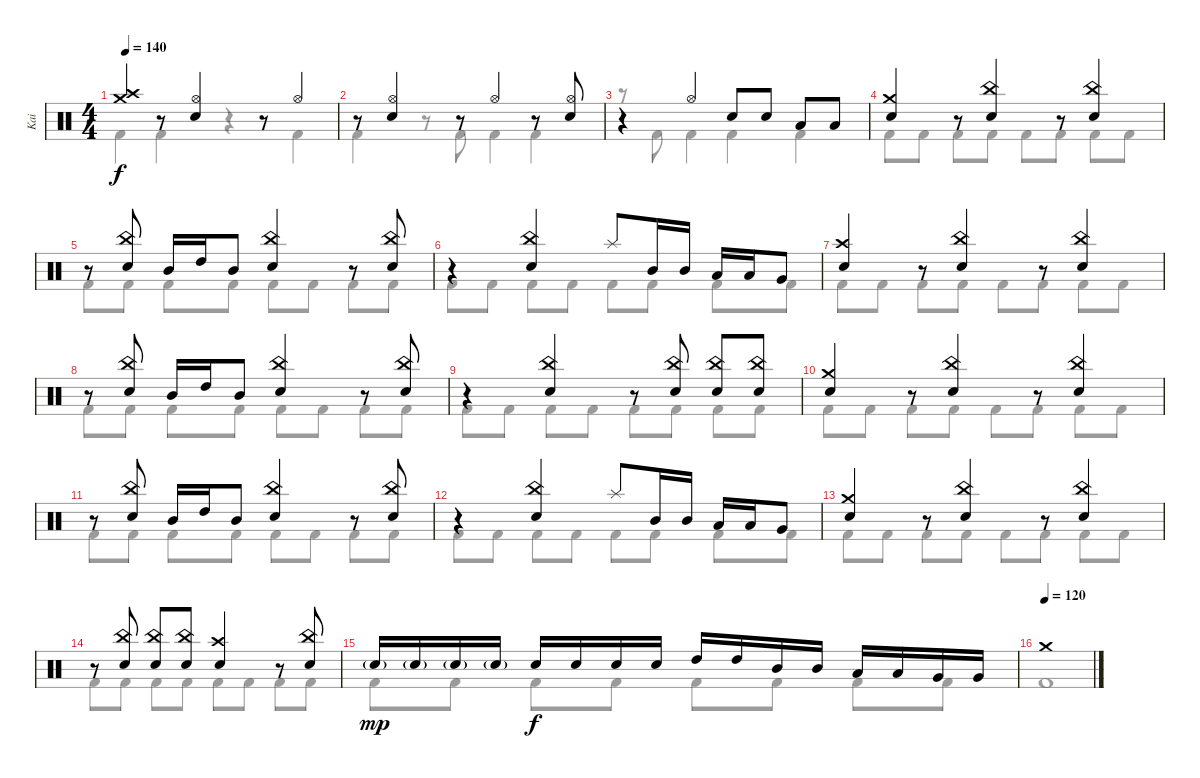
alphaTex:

\track ("Kai" "Kai") {instrument percussion}
\staff {score}
\articulation defaults
\voice
\ts (4 4)
\tempo 140
\clef neutral
\ks c
("Crash medium (hit)" "Crash high (hit)").4{dy f} r.8 ("Hi-Hat (open)" "Snare (hit) 2").4 r.8 "Hi-Hat (open)".4 |
r.8 ("Hi-Hat (open)" "Snare (hit) 2").4 r.8 "Hi-Hat (open)".4 r.8 ("Hi-Hat (open)" "Snare (hit) 2").8 |
r.4 "Hi-Hat (open)".4 "Snare (hit) 2".8 "Snare (hit) 2".8 "Low Tom (hit)".8 "Low Tom (hit)".8 |
("Crash medium (hit)" "Snare (hit) 2").4 r.8 ("China (hit)" "Snare (hit) 2").4 r.8 ("China (hit)" "Snare (hit) 2").4 |
r.8 ("China (hit)" "Snare (hit) 2").8 "Mid Tom (hit)".16 "High Tom (hit)".16 "Mid Tom (hit)".8 ("China (hit)" "Snare (hit) 2").4 r.8 ("China (hit)" "Snare (hit) 2").8 |
r.4 ("China (hit)" "Snare (hit) 2").4 "Splash (hit)".8 "Mid Tom (hit)".16 "Mid Tom (hit)".16 "Low Tom (hit)".16 "Low Tom (hit)".16 "Very Low Tom (hit)".8 |
("Crash high (hit)" "Snare (hit) 2").4 r.8 ("China (hit)" "Snare (hit) 2").4 r.8 ("China (hit)" "Snare (hit) 2").4 |
r.8 ("China (hit)" "Snare (hit) 2").8 "Mid Tom (hit)".16 "High Tom (hit)".16 "Mid Tom (hit)".8 ("China (hit)" "Snare (hit) 2").4 r.8 ("China (hit)" "Snare (hit) 2").8 |
r.4 ("China (hit)" "Snare (hit) 2").4 r.8 ("China (hit)" "Snare (hit) 2").8 ("China (hit)" "Snare (hit) 2").8 ("China (hit)" "Snare (hit) 2").8 |
("Crash medium (hit)" "Snare (hit) 2").4 r.8 ("China (hit)" "Snare (hit) 2").4 r.8 ("China (hit)" "Snare (hit) 2").4 |
r.8 ("China (hit)" "Snare (hit) 2").8 "Mid Tom (hit)".16 "High Tom (hit)".16 "Mid Tom (hit)".8 ("China (hit)" "Snare (hit) 2").4 r.8 ("China (hit)" "Snare (hit) 2").8 |
r.4 ("China (hit)" "Snare (hit) 2").4 "Splash (hit)".8 "Mid Tom (hit)".16 "Mid Tom (hit)".16 "Low Tom (hit)".16 "Low Tom (hit)".16 "Very Low Tom (hit)".8 |
("Crash medium (hit)" "Snare (hit) 2").4 r.8 ("China (hit)" "Snare (hit) 2").4 r.8 ("China (hit)" "Snare (hit) 2").4 |
r.8 ("China (hit)" "Snare (hit) 2").8 ("China (hit)" "Snare (hit) 2").8 ("China (hit)" "Snare (hit) 2").8 ("Crash high (hit)" "Snare (hit) 2").4 r.8 ("China (hit)" "Snare (hit) 2").8 |
"Snare (hit) 2"{g}.16{dy mp} "Snare (hit) 2"{g}.16 "Snare (hit) 2"{g}.16 "Snare (hit) 2"{g}.16 "Snare (hit) 2".16{dy f} "Snare (hit) 2".16 "Snare (hit) 2".16 "Snare (hit) 2".16 "High Tom (hit)".16 "High Tom (hit)".16 "Mid Tom (hit)".16 "Mid Tom (hit)".16 "Low Tom (hit)".16 "Low Tom (hit)".16 "Very Low Tom (hit)".16 "Very Low Tom (hit)".16 |
\tempo (120)
"Crash medium (hit)".1
\voice
\clef neutral
\ottava regular
\simile none
\ks c "Kick (hit) 2".4{dy f} "Kick (hit) 2".4
r.4 "Kick (hit) 2".4 |
"Kick (hit) 2".4 r.8 "Kick (hit) 2".8 "Kick (hit) 2".4 "Kick (hit) 2".4 |
r.8 "Kick (hit) 2".8 "Kick (hit) 2".4 "Kick (hit) 2".4 "Kick (hit) 2".4 |
"Kick (hit) 2".8 "Kick (hit) 2".8 "Kick (hit) 2".8 "Kick (hit) 2".8 "Kick (hit) 2".8 "Kick (hit) 2".8 "Kick (hit) 2".8 "Kick (hit) 2".8 |
"Kick (hit) 2".8 "Kick (hit) 2".8 "Kick (hit) 2".8 "Kick (hit) 2".8 "Kick (hit) 2".8 "Kick (hit) 2".8 "Kick (hit) 2".8 "Kick (hit) 2".8 |
"Kick (hit) 2".8 "Kick (hit) 2".8 "Kick (hit) 2".8 "Kick (hit) 2".8 "Kick (hit) 2".8 "Kick (hit) 2".8 "Kick (hit) 2".8 "Kick (hit) 2".8 |
"Kick (hit) 2".8 "Kick (hit) 2".8 "Kick (hit) 2".8 "Kick (hit) 2".8 "Kick (hit) 2".8 "Kick (hit) 2".8 "Kick (hit) 2".8 "Kick (hit) 2".8 |
"Kick (hit) 2".8 "Kick (hit) 2".8 "Kick (hit) 2".8 "Kick (hit) 2".8 "Kick (hit) 2".8 "Kick (hit) 2".8 "Kick (hit) 2".8 "Kick (hit) 2".8 |
"Kick (hit) 2".8 "Kick (hit) 2".8 "Kick (hit) 2".8 "Kick (hit) 2".8 "Kick (hit) 2".8 "Kick (hit) 2".8 "Kick (hit) 2".8 "Kick (hit) 2".8 |
"Kick (hit) 2".8 "Kick (hit) 2".8 "Kick (hit) 2".8 "Kick (hit) 2".8 "Kick (hit) 2".8 "Kick (hit) 2".8 "Kick (hit) 2".8 "Kick (hit) 2".8 |
"Kick (hit) 2".8 "Kick (hit) 2".8 "Kick (hit) 2".8 "Kick (hit) 2".8 "Kick (hit) 2".8 "Kick (hit) 2".8 "Kick (hit) 2".8 "Kick (hit) 2".8 |
"Kick (hit) 2".8 "Kick (hit) 2".8 "Kick (hit) 2".8 "Kick (hit) 2".8 "Kick (hit) 2".8 "Kick (hit) 2".8 "Kick (hit) 2".8 "Kick (hit) 2".8 |
"Kick (hit) 2".8 "Kick (hit) 2".8 "Kick (hit) 2".8 "Kick (hit) 2".8 "Kick (hit) 2".8 "Kick (hit) 2".8 "Kick (hit) 2".8 "Kick (hit) 2".8 |
"Kick (hit) 2".8 "Kick (hit) 2".8 "Kick (hit) 2".8 "Kick (hit) 2".8 "Kick (hit) 2".8 "Kick (hit) 2".8 "Kick (hit) 2".8 "Kick (hit) 2".8 |
"Kick (hit) 2".8 "Kick (hit) 2".8 "Kick (hit) 2".8 "Kick (hit) 2".8 "Kick (hit) 2".8 "Kick (hit) 2".8 "Kick (hit) 2".8 "Kick (hit) 2".8 |
"Kick (hit) 2".1
